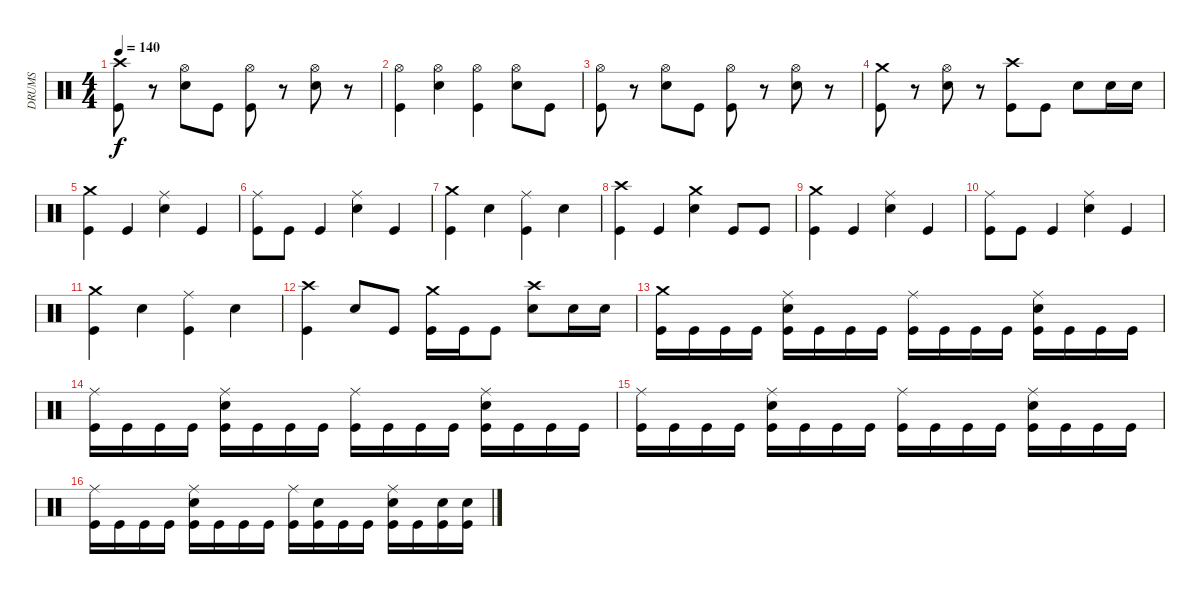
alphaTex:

\track ("DRUMS" "DRUMS") {instrument percussion}
\staff {score}
\articulation defaults
\ts (4 4)
\tempo 140
\clef neutral
\ks c
("Crash high (hit)" "Kick (hit)").8{dy f} r.8 ("Hi-Hat (open)" "Electric Snare (hit)").8 "Kick (hit)".8 ("Hi-Hat (open)" "Kick (hit)").8 r.8 ("Hi-Hat (open)" "Electric Snare (hit)").8 r.8 |
("Hi-Hat (open)" "Kick (hit)").4 ("Hi-Hat (open)" "Electric Snare (hit)").4 ("Hi-Hat (open)" "Kick (hit)").4 ("Hi-Hat (open)" "Electric Snare (hit)").8 "Kick (hit)".8 |
("Hi-Hat (open)" "Kick (hit)").8 r.8 ("Hi-Hat (open)" "Electric Snare (hit)").8 "Kick (hit)".8 ("Hi-Hat (open)" "Kick (hit)").8 r.8 ("Hi-Hat (open)" "Electric Snare (hit)").8 r.8 |
("Crash medium (hit)" "Kick (hit)").8 r.8 ("Hi-Hat (open)" "Electric Snare (hit)").8 r.8 ("Crash high (hit)" "Kick (hit)").8 "Kick (hit)".8 "Electric Snare (hit)".8 "Electric Snare (hit)".16 "Electric Snare (hit)".16 |
("Crash medium (hit)" "Kick (hit)").4 "Kick (hit)".4 ("Ride (middle)" "Electric Snare (hit)").4 "Kick (hit)".4 |
("Ride (middle)" "Kick (hit)").8 "Kick (hit)".8 "Kick (hit)".4 ("Ride (middle)" "Electric Snare (hit)").4 "Kick (hit)".4 |
("Crash medium (hit)" "Kick (hit)").4 "Electric Snare (hit)".4 ("Ride (middle)" "Kick (hit)").4 "Electric Snare (hit)".4 |
("Crash high (hit)" "Kick (hit)").4 "Kick (hit)".4 ("Crash medium (hit)" "Electric Snare (hit)").4 "Kick (hit)".8 "Kick (hit)".8 |
("Crash medium (hit)" "Kick (hit)").4 "Kick (hit)".4 ("Ride (middle)" "Electric Snare (hit)").4 "Kick (hit)".4 |
("Ride (middle)" "Kick (hit)").8 "Kick (hit)".8 "Kick (hit)".4 ("Ride (middle)" "Electric Snare (hit)").4 "Kick (hit)".4 |
("Crash medium (hit)" "Kick (hit)").4 "Electric Snare (hit)".4 ("Ride (middle)" "Kick (hit)").4 "Electric Snare (hit)".4 |
("Crash high (hit)" "Kick (hit)").4 "Electric Snare (hit)".8 "Kick (hit)".8 ("Crash medium (hit)" "Kick (hit)").16 "Kick (hit)".16 "Kick (hit)".8 ("Crash high (hit)" "Electric Snare (hit)").8 "Electric Snare (hit)".16 "Electric Snare (hit)".16 |
("Crash medium (hit)" "Kick (hit)").16 "Kick (hit)".16 "Kick (hit)".16 "Kick (hit)".16 ("Ride (middle)" "Electric Snare (hit)" "Kick (hit)").16 "Kick (hit)".16 "Kick (hit)".16 "Kick (hit)".16 ("Ride (middle)" "Kick (hit)").16 "Kick (hit)".16 "Kick (hit)".16 "Kick (hit)".16 ("Ride (middle)" "Electric Snare (hit)" "Kick (hit)").16 "Kick (hit)".16 "Kick (hit)".16 "Kick (hit)".16 |
("Ride (middle)" "Kick (hit)").16 "Kick (hit)".16 "Kick (hit)".16 "Kick (hit)".16 ("Ride (middle)" "Electric Snare (hit)" "Kick (hit)").16 "Kick (hit)".16 "Kick (hit)".16 "Kick (hit)".16 ("Ride (middle)" "Kick (hit)").16 "Kick (hit)".16 "Kick (hit)".16 "Kick (hit)".16 ("Ride (middle)" "Electric Snare (hit)" "Kick (hit)").16 "Kick (hit)".16 "Kick (hit)".16 "Kick (hit)".16 |
("Ride (middle)" "Kick (hit)").16 "Kick (hit)".16 "Kick (hit)".16 "Kick (hit)".16 ("Ride (middle)" "Electric Snare (hit)" "Kick (hit)").16 "Kick (hit)".16 "Kick (hit)".16 "Kick (hit)".16 ("Ride (middle)" "Kick (hit)").16 "Kick (hit)".16 "Kick (hit)".16 "Kick (hit)".16 ("Ride (middle)" "Electric Snare (hit)" "Kick (hit)").16 "Kick (hit)".16 "Kick (hit)".16 "Kick (hit)".16 |
("Ride (middle)" "Kick (hit)").16 "Kick (hit)".16 "Kick (hit)".16 "Kick (hit)".16 ("Ride (middle)" "Electric Snare (hit)" "Kick (hit)").16 "Kick (hit)".16 "Kick (hit)".16 "Kick (hit)".16 ("Ride (middle)" "Kick (hit)").16 ("Electric Snare (hit)" "Kick (hit)").16 "Kick (hit)".16 "Kick (hit)".16 ("Ride (middle)" "Electric Snare (hit)" "Kick (hit)").16 "Kick (hit)".16 ("Electric Snare (hit)" "Kick (hit)").16 ("Electric Snare (hit)" "Kick (hit)").16
